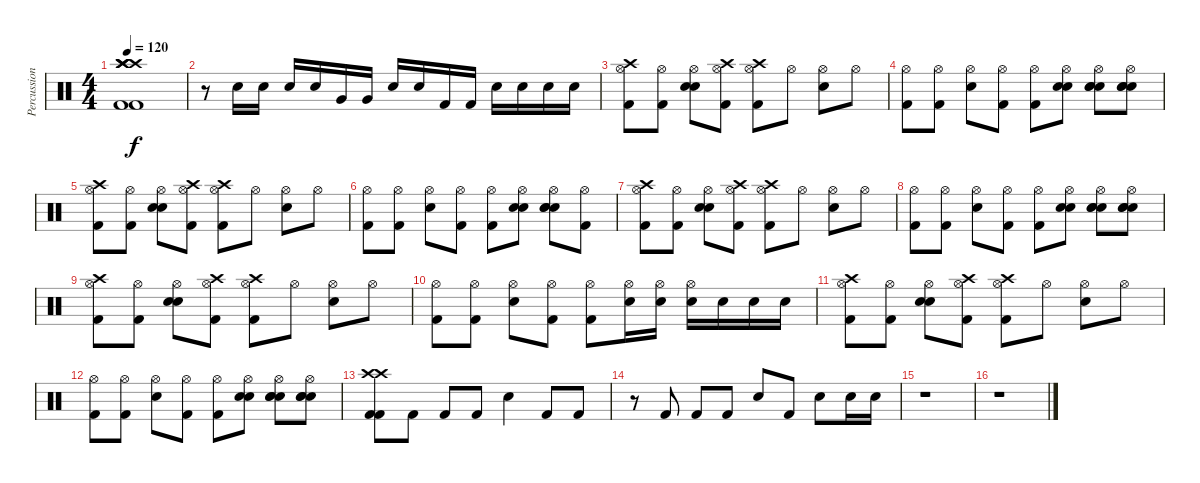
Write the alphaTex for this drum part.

\track ("Percussion" "Percussion") {instrument percussion}
\staff {score}
\articulation defaults
\ts (4 4)
\tempo 120
\clef neutral
\ks c
("Kick (hit) 2" "Kick (hit) 2" "Crash high (hit)" "Crash high (hit)" "Crash high (hit)" "Crash high (hit)").1{dy f} |
r.8 "Electric Snare (hit)".16 "Electric Snare (hit)".16 "Electric Snare (hit)".16 "Electric Snare (hit)".16 "Very Low Tom (hit)".16 "Very Low Tom (hit)".16 "Electric Snare (hit)".16 "Electric Snare (hit)".16 "Kick (hit) 2".16 "Kick (hit) 2".16 "Electric Snare (hit)".16 "Electric Snare (hit)".16 "Electric Snare (hit)".16 "Electric Snare (hit)".16 |
("Hi-Hat (open)" "Kick (hit) 2" "Crash high (hit)").8 ("Hi-Hat (open)" "Kick (hit) 2").8 ("Hi-Hat (open)" "Electric Snare (hit)" "Electric Snare (hit)").8 ("Hi-Hat (open)" "Kick (hit) 2" "Crash high (hit)").8 ("Hi-Hat (open)" "Kick (hit) 2" "Crash high (hit)").8 "Hi-Hat (open)".8 ("Hi-Hat (open)" "Electric Snare (hit)").8 "Hi-Hat (open)".8 |
("Hi-Hat (open)" "Kick (hit) 2").8 ("Hi-Hat (open)" "Kick (hit) 2").8 ("Hi-Hat (open)" "Electric Snare (hit)").8 ("Hi-Hat (open)" "Kick (hit) 2").8 ("Hi-Hat (open)" "Kick (hit) 2").8 ("Hi-Hat (open)" "Electric Snare (hit)" "Electric Snare (hit)").8 ("Hi-Hat (open)" "Electric Snare (hit)" "Electric Snare (hit)" "Electric Snare (hit)").8 ("Hi-Hat (open)" "Electric Snare (hit)" "Electric Snare (hit)" "Electric Snare (hit)").8 |
("Hi-Hat (open)" "Kick (hit) 2" "Crash high (hit)").8 ("Hi-Hat (open)" "Kick (hit) 2").8 ("Hi-Hat (open)" "Electric Snare (hit)" "Electric Snare (hit)").8 ("Hi-Hat (open)" "Kick (hit) 2" "Crash high (hit)").8 ("Hi-Hat (open)" "Kick (hit) 2" "Crash high (hit)").8 "Hi-Hat (open)".8 ("Hi-Hat (open)" "Electric Snare (hit)").8 "Hi-Hat (open)".8 |
("Hi-Hat (open)" "Kick (hit) 2").8 ("Hi-Hat (open)" "Kick (hit) 2").8 ("Hi-Hat (open)" "Electric Snare (hit)").8 ("Hi-Hat (open)" "Kick (hit) 2").8 ("Hi-Hat (open)" "Kick (hit) 2").8 ("Hi-Hat (open)" "Electric Snare (hit)" "Electric Snare (hit)").8 ("Hi-Hat (open)" "Electric Snare (hit)" "Electric Snare (hit)" "Electric Snare (hit)").8 ("Hi-Hat (open)" "Kick (hit) 2").8 |
("Hi-Hat (open)" "Kick (hit) 2" "Crash high (hit)").8 ("Hi-Hat (open)" "Kick (hit) 2").8 ("Hi-Hat (open)" "Electric Snare (hit)" "Electric Snare (hit)").8 ("Hi-Hat (open)" "Kick (hit) 2" "Crash high (hit)").8 ("Hi-Hat (open)" "Kick (hit) 2" "Crash high (hit)").8 "Hi-Hat (open)".8 ("Hi-Hat (open)" "Electric Snare (hit)").8 "Hi-Hat (open)".8 |
("Hi-Hat (open)" "Kick (hit) 2").8 ("Hi-Hat (open)" "Kick (hit) 2").8 ("Hi-Hat (open)" "Electric Snare (hit)").8 ("Hi-Hat (open)" "Kick (hit) 2").8 ("Hi-Hat (open)" "Kick (hit) 2").8 ("Hi-Hat (open)" "Electric Snare (hit)" "Electric Snare (hit)").8 ("Hi-Hat (open)" "Electric Snare (hit)" "Electric Snare (hit)" "Electric Snare (hit)").8 ("Hi-Hat (open)" "Electric Snare (hit)" "Electric Snare (hit)" "Electric Snare (hit)").8 |
("Hi-Hat (open)" "Kick (hit) 2" "Crash high (hit)").8 ("Hi-Hat (open)" "Kick (hit) 2").8 ("Hi-Hat (open)" "Electric Snare (hit)" "Electric Snare (hit)").8 ("Hi-Hat (open)" "Kick (hit) 2" "Crash high (hit)").8 ("Hi-Hat (open)" "Kick (hit) 2" "Crash high (hit)").8 "Hi-Hat (open)".8 ("Hi-Hat (open)" "Electric Snare (hit)").8 "Hi-Hat (open)".8 |
("Hi-Hat (open)" "Kick (hit) 2").8 ("Hi-Hat (open)" "Kick (hit) 2").8 ("Hi-Hat (open)" "Electric Snare (hit)").8 ("Hi-Hat (open)" "Kick (hit) 2").8 ("Hi-Hat (open)" "Kick (hit) 2").8 ("Hi-Hat (open)" "Electric Snare (hit)").16 ("Hi-Hat (open)" "Electric Snare (hit)").16 ("Hi-Hat (open)" "Electric Snare (hit)").16 "Electric Snare (hit)".16 "Electric Snare (hit)".16 "Electric Snare (hit)".16 |
("Hi-Hat (open)" "Kick (hit) 2" "Crash high (hit)").8 ("Hi-Hat (open)" "Kick (hit) 2").8 ("Hi-Hat (open)" "Electric Snare (hit)" "Electric Snare (hit)").8 ("Hi-Hat (open)" "Kick (hit) 2" "Crash high (hit)").8 ("Hi-Hat (open)" "Kick (hit) 2" "Crash high (hit)").8 "Hi-Hat (open)".8 ("Hi-Hat (open)" "Electric Snare (hit)").8 "Hi-Hat (open)".8 |
("Hi-Hat (open)" "Kick (hit) 2").8 ("Hi-Hat (open)" "Kick (hit) 2").8 ("Hi-Hat (open)" "Electric Snare (hit)").8 ("Hi-Hat (open)" "Kick (hit) 2").8 ("Hi-Hat (open)" "Kick (hit) 2").8 ("Hi-Hat (open)" "Electric Snare (hit)" "Electric Snare (hit)").8 ("Hi-Hat (open)" "Electric Snare (hit)" "Electric Snare (hit)" "Electric Snare (hit)").8 ("Hi-Hat (open)" "Electric Snare (hit)" "Electric Snare (hit)" "Electric Snare (hit)").8 |
("Kick (hit) 2" "Kick (hit) 2" "Crash high (hit)" "Crash high (hit)").8 "Kick (hit) 2".8 "Kick (hit) 2".8 "Kick (hit) 2".8 "Electric Snare (hit)".4 "Kick (hit) 2".8 "Kick (hit) 2".8 |
r.8 "Kick (hit) 2".8 "Kick (hit) 2".8 "Kick (hit) 2".8 "Electric Snare (hit)".8 "Kick (hit) 2".8 "Electric Snare (hit)".8 "Electric Snare (hit)".16 "Electric Snare (hit)".16 |
r.1 |
r.1
